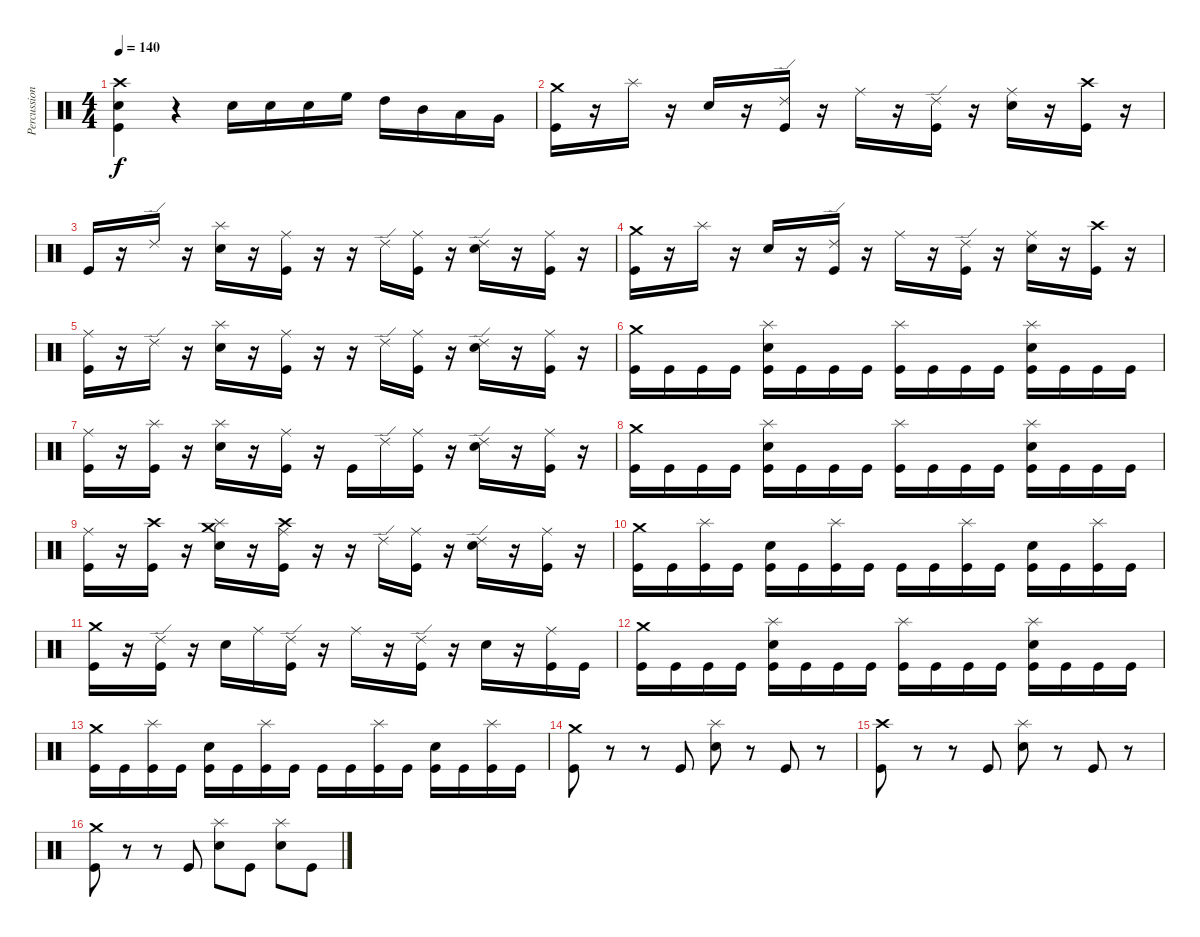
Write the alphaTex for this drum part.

\track ("Percussion" "Percussion") {instrument percussion}
\staff {score}
\articulation defaults
\ts (4 4)
\tempo 140
\clef neutral
\ks c
("Crash high (hit)" "Electric Snare (hit)" "Kick (hit)").4{dy f} r.4 "Electric Snare (hit)".16 "Electric Snare (hit)".16 "Electric Snare (hit)".16 "High Floor Tom (hit)".16 "High Tom (hit)".16 "Mid Tom (hit)".16 "Low Tom (hit)".16 "Very Low Tom (hit)".16 |
("Crash medium (hit)" "Kick (hit)").16 r.16 "Splash (hit)".16 r.16 "Electric Snare (hit)".16 r.16 ("Ride (edge) 2" "Kick (hit)").16 r.16 "Ride (middle)".16 r.16 ("Ride (edge) 2" "Kick (hit)").16 r.16 ("Electric Snare (hit)" "Ride (middle)").16 r.16 ("Crash high (hit)" "Kick (hit)").16 r.16 |
"Kick (hit)".16 r.16 "Ride (edge) 2".16 r.16 ("Electric Snare (hit)" "Splash (hit)").16 r.16 ("Ride (middle)" "Kick (hit)").16 r.16 r.16 "Ride (edge) 2".16 ("Ride (middle)" "Kick (hit)").16 r.16 ("Electric Snare (hit)" "Ride (edge) 2").16 r.16 ("Ride (middle)" "Kick (hit)").16 r.16 |
("Crash medium (hit)" "Kick (hit)").16 r.16 "Splash (hit)".16 r.16 "Electric Snare (hit)".16 r.16 ("Ride (edge) 2" "Kick (hit)").16 r.16 "Ride (middle)".16 r.16 ("Ride (edge) 2" "Kick (hit)").16 r.16 ("Electric Snare (hit)" "Ride (middle)").16 r.16 ("Crash high (hit)" "Kick (hit)").16 r.16 |
("Ride (middle)" "Kick (hit)").16 r.16 "Ride (edge) 2".16 r.16 ("Electric Snare (hit)" "Splash (hit)").16 r.16 ("Ride (middle)" "Kick (hit)").16 r.16 r.16 "Ride (edge) 2".16 ("Ride (middle)" "Kick (hit)").16 r.16 ("Electric Snare (hit)" "Ride (edge) 2").16 r.16 ("Ride (middle)" "Kick (hit)").16 r.16 |
("Crash medium (hit)" "Kick (hit)").16 "Kick (hit)".16 "Kick (hit)".16 "Kick (hit)".16 ("Electric Snare (hit)" "Splash (hit)" "Kick (hit)").16 "Kick (hit)".16 "Kick (hit)".16 "Kick (hit)".16 ("Splash (hit)" "Kick (hit)").16 "Kick (hit)".16 "Kick (hit)".16 "Kick (hit)".16 ("Electric Snare (hit)" "Splash (hit)" "Kick (hit)").16 "Kick (hit)".16 "Kick (hit)".16 "Kick (hit)".16 |
("Ride (middle)" "Kick (hit)").16 r.16 ("Splash (hit)" "Kick (hit)").16 r.16 ("Electric Snare (hit)" "Splash (hit)").16 r.16 ("Ride (middle)" "Kick (hit)").16 r.16 "Kick (hit)".16 "Ride (edge) 2".16 ("Ride (middle)" "Kick (hit)").16 r.16 ("Electric Snare (hit)" "Ride (edge) 2").16 r.16 ("Ride (middle)" "Kick (hit)").16 r.16 |
("Crash medium (hit)" "Kick (hit)").16 "Kick (hit)".16 "Kick (hit)".16 "Kick (hit)".16 ("Electric Snare (hit)" "Splash (hit)" "Kick (hit)").16 "Kick (hit)".16 "Kick (hit)".16 "Kick (hit)".16 ("Splash (hit)" "Kick (hit)").16 "Kick (hit)".16 "Kick (hit)".16 "Kick (hit)".16 ("Electric Snare (hit)" "Splash (hit)" "Kick (hit)").16 "Kick (hit)".16 "Kick (hit)".16 "Kick (hit)".16 |
("Ride (middle)" "Kick (hit)").16 r.16 ("Crash high (hit)" "Kick (hit)").16 r.16 ("Crash medium (hit)" "Electric Snare (hit)" "Splash (hit)").16 r.16 ("Crash high (hit)" "Ride (middle)" "Kick (hit)").16 r.16 r.16 "Ride (edge) 2".16 ("Ride (middle)" "Kick (hit)").16 r.16 ("Electric Snare (hit)" "Ride (edge) 2").16 r.16 ("Ride (middle)" "Kick (hit)").16 r.16 |
("Crash medium (hit)" "Kick (hit)").16 "Kick (hit)".16 ("Splash (hit)" "Kick (hit)").16 "Kick (hit)".16 ("Electric Snare (hit)" "Kick (hit)").16 "Kick (hit)".16 ("Splash (hit)" "Kick (hit)").16 "Kick (hit)".16 "Kick (hit)".16 "Kick (hit)".16 ("Splash (hit)" "Kick (hit)").16 "Kick (hit)".16 ("Electric Snare (hit)" "Kick (hit)").16 "Kick (hit)".16 ("Splash (hit)" "Kick (hit)").16 "Kick (hit)".16 |
("Crash medium (hit)" "Kick (hit)").16 r.16 ("Ride (edge) 2" "Kick (hit)").16 r.16 "Electric Snare (hit)".16 "Ride (middle)".16 ("Ride (edge) 2" "Kick (hit)").16 r.16 "Ride (middle)".16 r.16 ("Ride (edge) 2" "Kick (hit)").16 r.16 "Electric Snare (hit)".16 r.16 ("Ride (middle)" "Kick (hit)").16 "Kick (hit)".16 |
("Crash medium (hit)" "Kick (hit)").16 "Kick (hit)".16 "Kick (hit)".16 "Kick (hit)".16 ("Electric Snare (hit)" "Splash (hit)" "Kick (hit)").16 "Kick (hit)".16 "Kick (hit)".16 "Kick (hit)".16 ("Splash (hit)" "Kick (hit)").16 "Kick (hit)".16 "Kick (hit)".16 "Kick (hit)".16 ("Electric Snare (hit)" "Splash (hit)" "Kick (hit)").16 "Kick (hit)".16 "Kick (hit)".16 "Kick (hit)".16 |
("Crash medium (hit)" "Kick (hit)").16 "Kick (hit)".16 ("Splash (hit)" "Kick (hit)").16 "Kick (hit)".16 ("Electric Snare (hit)" "Kick (hit)").16 "Kick (hit)".16 ("Splash (hit)" "Kick (hit)").16 "Kick (hit)".16 "Kick (hit)".16 "Kick (hit)".16 ("Splash (hit)" "Kick (hit)").16 "Kick (hit)".16 ("Electric Snare (hit)" "Kick (hit)").16 "Kick (hit)".16 ("Splash (hit)" "Kick (hit)").16 "Kick (hit)".16 |
("Crash medium (hit)" "Kick (hit)").8 r.8 r.8 "Kick (hit)".8 ("Splash (hit)" "Electric Snare (hit)").8 r.8 "Kick (hit)".8 r.8 |
("Crash high (hit)" "Kick (hit)").8 r.8 r.8 "Kick (hit)".8 ("Splash (hit)" "Electric Snare (hit)").8 r.8 "Kick (hit)".8 r.8 |
("Crash medium (hit)" "Kick (hit)").8 r.8 r.8 "Kick (hit)".8 ("Splash (hit)" "Electric Snare (hit)").8 "Kick (hit)".8 ("Splash (hit)" "Electric Snare (hit)").8 "Kick (hit)".8
